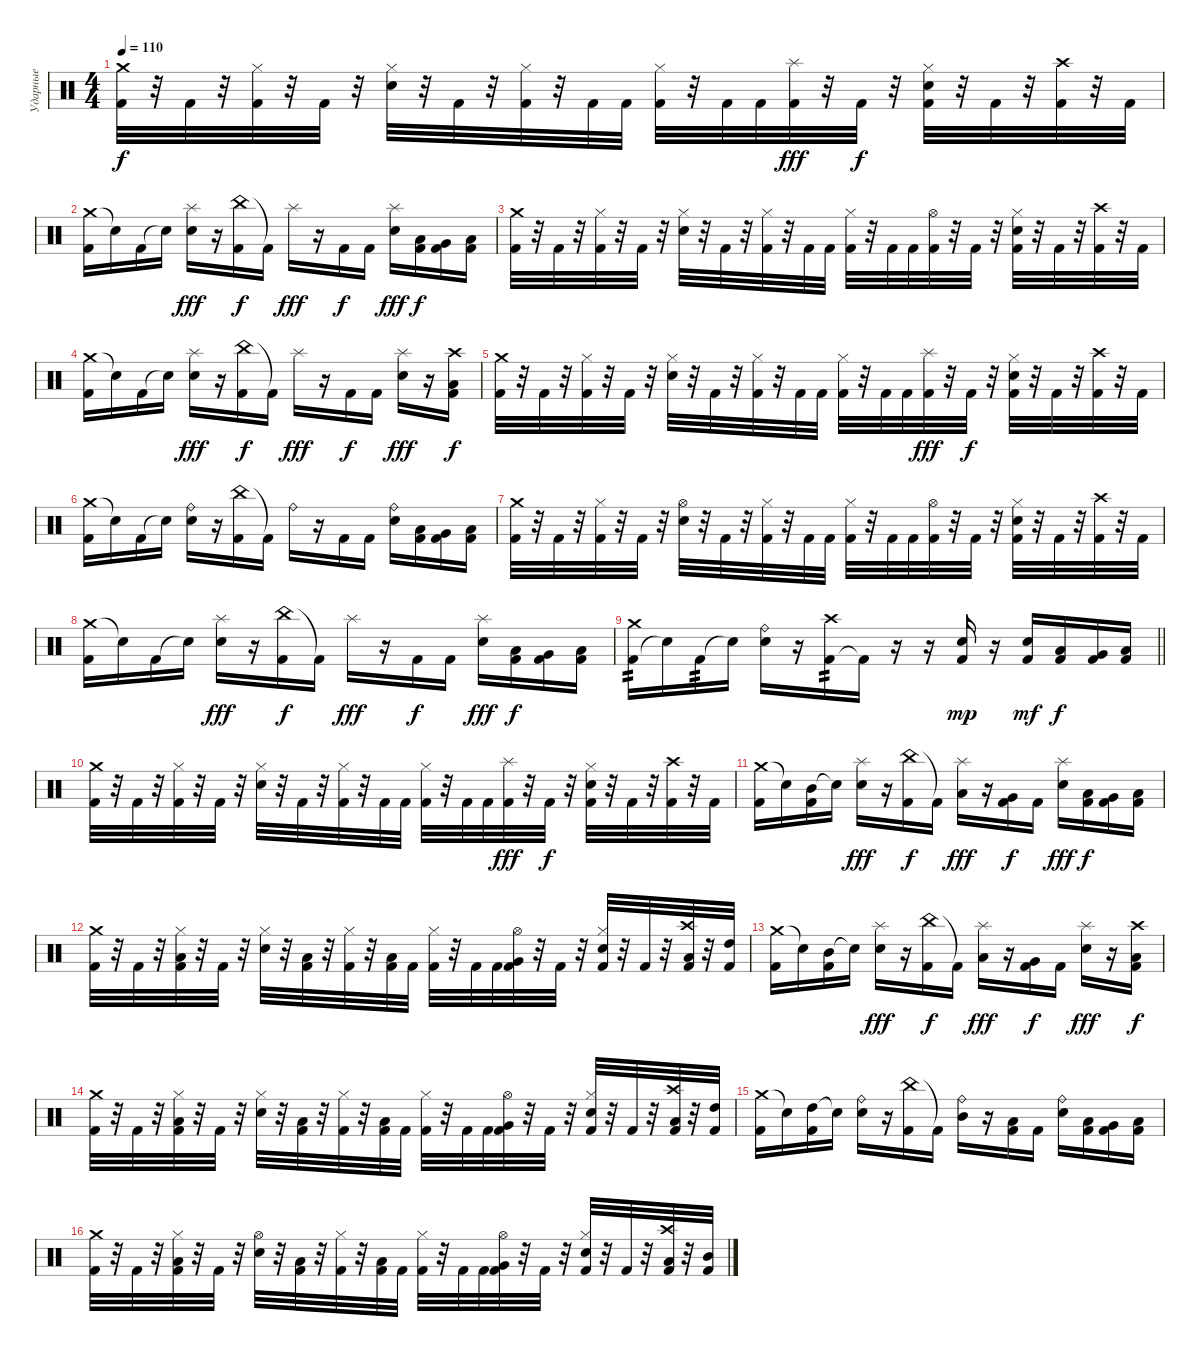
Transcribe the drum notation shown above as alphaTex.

\track ("Ударные" "Ударные") {instrument percussion}
\staff {score}
\articulation defaults
\ts (4 4)
\tempo 110
\clef neutral
\ks c
("Crash medium (hit)" "Kick (hit) 2").32{dy f} r.32 "Kick (hit) 2".32 r.32 ("Hi-Hat (closed)" "Kick (hit) 2").32 r.32 "Kick (hit) 2".32 r.32 ("Hi-Hat (closed)" "Snare (hit) 2").32 r.32 "Kick (hit) 2".32 r.32 ("Hi-Hat (closed)" "Kick (hit) 2").32 r.32 "Kick (hit) 2".32 "Kick (hit) 2".32 ("Hi-Hat (closed)" "Kick (hit) 2").32 r.32 "Kick (hit) 2".32 "Kick (hit) 2".32 ("Splash (hit)" "Kick (hit) 2").32{dy fff} r.32 "Kick (hit) 2".32{dy f} r.32 ("Hi-Hat (closed)" "Snare (hit) 2" "Kick (hit) 2").32 r.32 "Kick (hit) 2".32 r.32 ("Crash high (hit)" "Kick (hit) 2").32 r.32 "Kick (hit) 2".32 |
("Crash medium (hit)" "Kick (hit) 2").16 "Snare (hit)"{t}.16 "Kick (hit) 2".16 "Snare (hit)"{t}.16 ("Splash (hit)" "Snare (hit) 2").16{dy fff} r.16 ("China (hit)" "Kick (hit) 2").16{dy f} "Kick (hit) 2"{t}.16 "Splash (hit)".16{dy fff} r.16 "Kick (hit) 2".16{dy f} "Kick (hit) 2".16 ("Splash (hit)" "Snare (hit) 2").16{dy fff} ("Low Tom (hit)" "Kick (hit) 2").16{dy f} ("Very Low Tom (hit)" "Kick (hit) 2").16 ("Low Floor Tom (hit)" "Kick (hit) 2").16 |
("Crash medium (hit)" "Kick (hit) 2").32 r.32 "Kick (hit) 2".32 r.32 ("Hi-Hat (closed)" "Kick (hit) 2").32 r.32 "Kick (hit) 2".32 r.32 ("Hi-Hat (closed)" "Snare (hit) 2").32 r.32 "Kick (hit) 2".32 r.32 ("Hi-Hat (closed)" "Kick (hit) 2").32 r.32 "Kick (hit) 2".32 "Kick (hit) 2".32 ("Hi-Hat (closed)" "Kick (hit) 2").32 r.32 "Kick (hit) 2".32 "Kick (hit) 2".32 ("Hi-Hat (open)" "Kick (hit) 2").32 r.32 "Kick (hit) 2".32 r.32 ("Hi-Hat (closed)" "Snare (hit) 2" "Kick (hit) 2").32 r.32 "Kick (hit) 2".32 r.32 ("Crash high (hit)" "Kick (hit) 2").32 r.32 "Kick (hit) 2".32 |
("Crash medium (hit)" "Kick (hit) 2").16 "Snare (hit)"{t}.16 "Kick (hit) 2".16 "Snare (hit)"{t}.16 ("Splash (hit)" "Snare (hit) 2").16{dy fff} r.16 ("China (hit)" "Kick (hit) 2").16{dy f} "Kick (hit) 2"{t}.16 "Splash (hit)".16{dy fff} r.16 "Kick (hit) 2".16{dy f} "Kick (hit) 2".16 ("Splash (hit)" "Snare (hit) 2").16{dy fff} r.16 ("Crash high (hit)" "Low Tom (hit)" "Kick (hit) 2").16{dy f} |
("Crash medium (hit)" "Kick (hit) 2").32 r.32 "Kick (hit) 2".32 r.32 ("Hi-Hat (closed)" "Kick (hit) 2").32 r.32 "Kick (hit) 2".32 r.32 ("Hi-Hat (closed)" "Snare (hit) 2").32 r.32 "Kick (hit) 2".32 r.32 ("Hi-Hat (closed)" "Kick (hit) 2").32 r.32 "Kick (hit) 2".32 "Kick (hit) 2".32 ("Hi-Hat (closed)" "Kick (hit) 2").32 r.32 "Kick (hit) 2".32 "Kick (hit) 2".32 ("Splash (hit)" "Kick (hit) 2").32{dy fff} r.32 "Kick (hit) 2".32{dy f} r.32 ("Hi-Hat (closed)" "Snare (hit) 2" "Kick (hit) 2").32 r.32 "Kick (hit) 2".32 r.32 ("Crash high (hit)" "Kick (hit) 2").32 r.32 "Kick (hit) 2".32 |
("Crash medium (hit)" "Kick (hit) 2").16 "Snare (hit)"{t}.16 "Kick (hit) 2".16 "Snare (hit)"{t}.16 ("Ride (bell)" "Snare (hit) 2").16 r.16 ("China (hit)" "Kick (hit) 2").16 "Kick (hit) 2"{t}.16 "Ride (bell)".16 r.16 "Kick (hit) 2".16 "Kick (hit) 2".16 ("Ride (bell)" "Snare (hit) 2").16 ("Low Tom (hit)" "Kick (hit) 2").16 ("Very Low Tom (hit)" "Kick (hit) 2").16 ("Low Floor Tom (hit)" "Kick (hit) 2").16 |
("Crash medium (hit)" "Kick (hit) 2").32 r.32 "Kick (hit) 2".32 r.32 ("Hi-Hat (closed)" "Kick (hit) 2").32 r.32 "Kick (hit) 2".32 r.32 ("Hi-Hat (open)" "Snare (hit) 2").32 r.32 "Kick (hit) 2".32 r.32 ("Hi-Hat (closed)" "Kick (hit) 2").32 r.32 "Kick (hit) 2".32 "Kick (hit) 2".32 ("Hi-Hat (closed)" "Kick (hit) 2").32 r.32 "Kick (hit) 2".32 "Kick (hit) 2".32 ("Hi-Hat (open)" "Kick (hit) 2").32 r.32 "Kick (hit) 2".32 r.32 ("Hi-Hat (closed)" "Snare (hit) 2" "Kick (hit) 2").32 r.32 "Kick (hit) 2".32 r.32 ("Crash high (hit)" "Kick (hit) 2").32 r.32 "Kick (hit) 2".32 |
("Crash medium (hit)" "Kick (hit) 2").16 "Snare (hit)"{t}.16 "Kick (hit) 2".16 "Snare (hit)"{t}.16 ("Splash (hit)" "Snare (hit) 2").16{dy fff} r.16 ("China (hit)" "Kick (hit) 2").16{dy f} "Kick (hit) 2"{t}.16 "Splash (hit)".16{dy fff} r.16 "Kick (hit) 2".16{dy f} "Kick (hit) 2".16 ("Splash (hit)" "Snare (hit) 2").16{dy fff} ("Low Tom (hit)" "Kick (hit) 2").16{dy f} ("Very Low Tom (hit)" "Kick (hit) 2").16 ("Low Floor Tom (hit)" "Kick (hit) 2").16 |
\barLineRight lightlight
("Kick (hit) 2" "Crash medium (hit)").16{tp 2} "Snare (hit)"{t}.16 "Kick (hit) 2".16{tp 2} "Snare (hit)"{t}.16 ("Electric Snare (hit)" "Ride (bell)").16 r.16 ("Kick (hit) 2" "Crash high (hit)").16{tp 2} "Kick (hit) 2"{t}.16 r.16 r.16 ("Snare (hit) 2" "Kick (hit) 2").16{dy mp} r.16 ("Snare (hit) 2" "Kick (hit) 2").16{dy mf} ("Low Floor Tom (hit)" "Kick (hit) 2").16{dy f} ("Very Low Tom (hit)" "Kick (hit) 2").16 ("Low Tom (hit)" "Kick (hit) 2").16 |
("Crash medium (hit)" "Kick (hit) 2").32 r.32 "Kick (hit) 2".32 r.32 ("Hi-Hat (closed)" "Kick (hit) 2").32 r.32 "Kick (hit) 2".32 r.32 ("Hi-Hat (closed)" "Snare (hit) 2").32 r.32 "Kick (hit) 2".32 r.32 ("Hi-Hat (closed)" "Kick (hit) 2").32 r.32 "Kick (hit) 2".32 "Kick (hit) 2".32 ("Hi-Hat (closed)" "Kick (hit) 2").32 r.32 "Kick (hit) 2".32 "Kick (hit) 2".32 ("Splash (hit)" "Kick (hit) 2").32{dy fff} r.32 "Kick (hit) 2".32{dy f} r.32 ("Hi-Hat (closed)" "Snare (hit) 2" "Kick (hit) 2").32 r.32 "Kick (hit) 2".32 r.32 ("Crash high (hit)" "Kick (hit) 2").32 r.32 "Kick (hit) 2".32 |
("Crash medium (hit)" "Kick (hit) 2").16 "Snare (hit)"{t}.16 ("Mid Tom (hit)" "Kick (hit) 2").16 "Snare (hit)"{t}.16 ("Splash (hit)" "Snare (hit) 2").16{dy fff} r.16 ("China (hit)" "Kick (hit) 2").16{dy f} "Kick (hit) 2"{t}.16 ("Splash (hit)" "Low Tom (hit)").16{dy fff} r.16 ("Very Low Tom (hit)" "Kick (hit) 2").16{dy f} "Kick (hit) 2".16 ("Splash (hit)" "Snare (hit) 2").16{dy fff} ("Low Tom (hit)" "Kick (hit) 2").16{dy f} ("Very Low Tom (hit)" "Kick (hit) 2").16 ("Low Floor Tom (hit)" "Kick (hit) 2").16 |
("Crash medium (hit)" "Kick (hit) 2").32 r.32 "Kick (hit) 2".32 r.32 ("Hi-Hat (closed)" "Low Tom (hit)" "Kick (hit) 2").32 r.32 "Kick (hit) 2".32 r.32 ("Hi-Hat (closed)" "Snare (hit) 2").32 r.32 ("Low Floor Tom (hit)" "Kick (hit) 2").32 r.32 ("Hi-Hat (closed)" "Kick (hit) 2").32 r.32 ("Low Tom (hit)" "Kick (hit) 2").32 "Kick (hit) 2".32 ("Hi-Hat (closed)" "Kick (hit) 2").32 r.32 "Kick (hit) 2".32 "Kick (hit) 2".32 ("Hi-Hat (open)" "Very Low Tom (hit)" "Kick (hit) 2").32 r.32 "Kick (hit) 2".32 r.32 ("Hi-Hat (closed)" "Snare (hit) 2" "Kick (hit) 2").32 r.32 "Kick (hit) 2".32 r.32 ("Crash high (hit)" "Low Tom (hit)" "Kick (hit) 2").32 r.32 ("High Tom (hit)" "Kick (hit) 2").32 |
("Crash medium (hit)" "Kick (hit) 2").16 "Snare (hit)"{t}.16 ("Mid Tom (hit)" "Kick (hit) 2").16 "Snare (hit)"{t}.16 ("Splash (hit)" "Snare (hit) 2").16{dy fff} r.16 ("China (hit)" "Kick (hit) 2").16{dy f} "Kick (hit) 2"{t}.16 ("Splash (hit)" "Low Tom (hit)").16{dy fff} r.16 ("Very Low Tom (hit)" "Kick (hit) 2").16{dy f} "Kick (hit) 2".16 ("Splash (hit)" "Snare (hit) 2").16{dy fff} r.16 ("Crash high (hit)" "Low Tom (hit)" "Kick (hit) 2").16{dy f} |
("Crash medium (hit)" "Kick (hit) 2").32 r.32 "Kick (hit) 2".32 r.32 ("Hi-Hat (closed)" "Low Tom (hit)" "Kick (hit) 2").32 r.32 "Kick (hit) 2".32 r.32 ("Hi-Hat (closed)" "Snare (hit) 2").32 r.32 ("Low Floor Tom (hit)" "Kick (hit) 2").32 r.32 ("Hi-Hat (closed)" "Kick (hit) 2").32 r.32 ("Low Tom (hit)" "Kick (hit) 2").32 "Kick (hit) 2".32 ("Hi-Hat (closed)" "Kick (hit) 2").32 r.32 "Kick (hit) 2".32 "Kick (hit) 2".32 ("Hi-Hat (open)" "Very Low Tom (hit)" "Kick (hit) 2").32 r.32 "Kick (hit) 2".32 r.32 ("Hi-Hat (closed)" "Snare (hit) 2" "Kick (hit) 2").32 r.32 "Kick (hit) 2".32 r.32 ("Crash high (hit)" "Low Tom (hit)" "Kick (hit) 2").32 r.32 ("High Tom (hit)" "Kick (hit) 2").32 |
("Crash medium (hit)" "Kick (hit) 2").16 "Snare (hit)"{t}.16 ("High Tom (hit)" "Kick (hit) 2").16 "Snare (hit)"{t}.16 ("Ride (bell)" "Snare (hit) 2").16 r.16 ("China (hit)" "Kick (hit) 2").16 "Kick (hit) 2"{t}.16 ("Ride (bell)" "Mid Tom (hit)").16 r.16 ("Low Tom (hit)" "Kick (hit) 2").16 "Kick (hit) 2".16 ("Ride (bell)" "Snare (hit) 2").16 ("Low Tom (hit)" "Kick (hit) 2").16 ("Very Low Tom (hit)" "Kick (hit) 2").16 ("Low Floor Tom (hit)" "Kick (hit) 2").16 |
("Crash medium (hit)" "Kick (hit) 2").32 r.32 "Kick (hit) 2".32 r.32 ("Hi-Hat (closed)" "Low Tom (hit)" "Kick (hit) 2").32 r.32 "Kick (hit) 2".32 r.32 ("Hi-Hat (open)" "Snare (hit) 2").32 r.32 ("Low Floor Tom (hit)" "Kick (hit) 2").32 r.32 ("Hi-Hat (closed)" "Kick (hit) 2").32 r.32 ("Low Tom (hit)" "Kick (hit) 2").32 "Kick (hit) 2".32 ("Hi-Hat (closed)" "Kick (hit) 2").32 r.32 "Kick (hit) 2".32 "Kick (hit) 2".32 ("Hi-Hat (open)" "Very Low Tom (hit)" "Kick (hit) 2").32 r.32 "Kick (hit) 2".32 r.32 ("Hi-Hat (closed)" "Snare (hit) 2" "Kick (hit) 2").32 r.32 "Kick (hit) 2".32 r.32 ("Crash high (hit)" "Low Tom (hit)" "Kick (hit) 2").32 r.32 ("Mid Tom (hit)" "Kick (hit) 2").32
